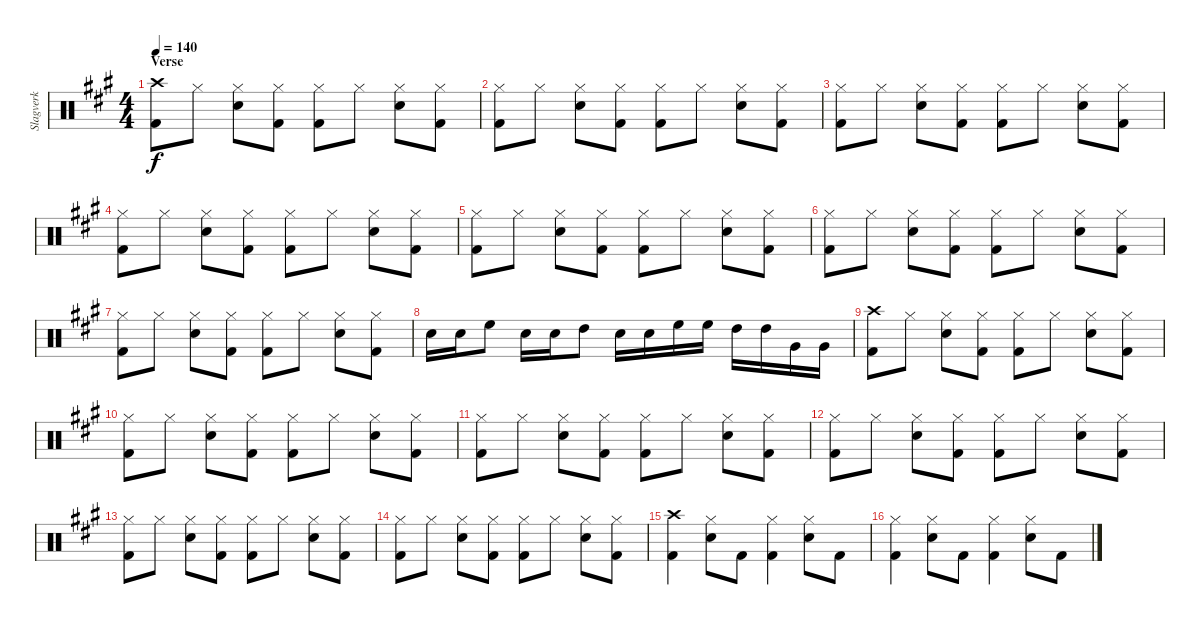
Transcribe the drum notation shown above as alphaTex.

\track ("Slagverk" "Slagverk") {instrument percussion}
\staff {score}
\articulation defaults
\ts (4 4)
\section ("" "Verse")
\tempo 140
\clef neutral
\ks a
("Crash high (hit)" "Kick (hit) 2").8{dy f} "Hi-Hat (closed)".8 ("Hi-Hat (closed)" "Electric Snare (hit)").8 ("Hi-Hat (closed)" "Kick (hit) 2").8 ("Hi-Hat (closed)" "Kick (hit) 2").8 "Hi-Hat (closed)".8 ("Hi-Hat (closed)" "Electric Snare (hit)").8 ("Hi-Hat (closed)" "Kick (hit) 2").8 |
("Hi-Hat (closed)" "Kick (hit) 2").8 "Hi-Hat (closed)".8 ("Hi-Hat (closed)" "Electric Snare (hit)").8 ("Hi-Hat (closed)" "Kick (hit) 2").8 ("Hi-Hat (closed)" "Kick (hit) 2").8 "Hi-Hat (closed)".8 ("Hi-Hat (closed)" "Electric Snare (hit)").8 ("Hi-Hat (closed)" "Kick (hit) 2").8 |
("Hi-Hat (closed)" "Kick (hit) 2").8 "Hi-Hat (closed)".8 ("Hi-Hat (closed)" "Electric Snare (hit)").8 ("Hi-Hat (closed)" "Kick (hit) 2").8 ("Hi-Hat (closed)" "Kick (hit) 2").8 "Hi-Hat (closed)".8 ("Hi-Hat (closed)" "Electric Snare (hit)").8 ("Hi-Hat (closed)" "Kick (hit) 2").8 |
("Hi-Hat (closed)" "Kick (hit) 2").8 "Hi-Hat (closed)".8 ("Hi-Hat (closed)" "Electric Snare (hit)").8 ("Hi-Hat (closed)" "Kick (hit) 2").8 ("Hi-Hat (closed)" "Kick (hit) 2").8 "Hi-Hat (closed)".8 ("Hi-Hat (closed)" "Electric Snare (hit)").8 ("Hi-Hat (closed)" "Kick (hit) 2").8 |
("Hi-Hat (closed)" "Kick (hit) 2").8 "Hi-Hat (closed)".8 ("Hi-Hat (closed)" "Electric Snare (hit)").8 ("Hi-Hat (closed)" "Kick (hit) 2").8 ("Hi-Hat (closed)" "Kick (hit) 2").8 "Hi-Hat (closed)".8 ("Hi-Hat (closed)" "Electric Snare (hit)").8 ("Hi-Hat (closed)" "Kick (hit) 2").8 |
("Hi-Hat (closed)" "Kick (hit) 2").8 "Hi-Hat (closed)".8 ("Hi-Hat (closed)" "Electric Snare (hit)").8 ("Hi-Hat (closed)" "Kick (hit) 2").8 ("Hi-Hat (closed)" "Kick (hit) 2").8 "Hi-Hat (closed)".8 ("Hi-Hat (closed)" "Electric Snare (hit)").8 ("Hi-Hat (closed)" "Kick (hit) 2").8 |
("Hi-Hat (closed)" "Kick (hit) 2").8 "Hi-Hat (closed)".8 ("Hi-Hat (closed)" "Electric Snare (hit)").8 ("Hi-Hat (closed)" "Kick (hit) 2").8 ("Hi-Hat (closed)" "Kick (hit) 2").8 "Hi-Hat (closed)".8 ("Hi-Hat (closed)" "Electric Snare (hit)").8 ("Hi-Hat (closed)" "Kick (hit) 2").8 |
"Electric Snare (hit)".16 "Electric Snare (hit)".16 "High Floor Tom (hit)".8 "Electric Snare (hit)".16 "Electric Snare (hit)".16 "High Tom (hit)".8 "Electric Snare (hit)".16 "Electric Snare (hit)".16 "High Floor Tom (hit)".16 "High Floor Tom (hit)".16 "High Tom (hit)".16 "High Tom (hit)".16 "Very Low Tom (hit)".16 "Very Low Tom (hit)".16 |
("Crash high (hit)" "Kick (hit) 2").8 "Hi-Hat (closed)".8 ("Hi-Hat (closed)" "Electric Snare (hit)").8 ("Hi-Hat (closed)" "Kick (hit) 2").8 ("Hi-Hat (closed)" "Kick (hit) 2").8 "Hi-Hat (closed)".8 ("Hi-Hat (closed)" "Electric Snare (hit)").8 ("Hi-Hat (closed)" "Kick (hit) 2").8 |
("Hi-Hat (closed)" "Kick (hit) 2").8 "Hi-Hat (closed)".8 ("Hi-Hat (closed)" "Electric Snare (hit)").8 ("Hi-Hat (closed)" "Kick (hit) 2").8 ("Hi-Hat (closed)" "Kick (hit) 2").8 "Hi-Hat (closed)".8 ("Hi-Hat (closed)" "Electric Snare (hit)").8 ("Hi-Hat (closed)" "Kick (hit) 2").8 |
("Hi-Hat (closed)" "Kick (hit) 2").8 "Hi-Hat (closed)".8 ("Hi-Hat (closed)" "Electric Snare (hit)").8 ("Hi-Hat (closed)" "Kick (hit) 2").8 ("Hi-Hat (closed)" "Kick (hit) 2").8 "Hi-Hat (closed)".8 ("Hi-Hat (closed)" "Electric Snare (hit)").8 ("Hi-Hat (closed)" "Kick (hit) 2").8 |
("Hi-Hat (closed)" "Kick (hit) 2").8 "Hi-Hat (closed)".8 ("Hi-Hat (closed)" "Electric Snare (hit)").8 ("Hi-Hat (closed)" "Kick (hit) 2").8 ("Hi-Hat (closed)" "Kick (hit) 2").8 "Hi-Hat (closed)".8 ("Hi-Hat (closed)" "Electric Snare (hit)").8 ("Hi-Hat (closed)" "Kick (hit) 2").8 |
("Hi-Hat (closed)" "Kick (hit) 2").8 "Hi-Hat (closed)".8 ("Hi-Hat (closed)" "Electric Snare (hit)").8 ("Hi-Hat (closed)" "Kick (hit) 2").8 ("Hi-Hat (closed)" "Kick (hit) 2").8 "Hi-Hat (closed)".8 ("Hi-Hat (closed)" "Electric Snare (hit)").8 ("Hi-Hat (closed)" "Kick (hit) 2").8 |
("Hi-Hat (closed)" "Kick (hit) 2").8 "Hi-Hat (closed)".8 ("Hi-Hat (closed)" "Electric Snare (hit)").8 ("Hi-Hat (closed)" "Kick (hit) 2").8 ("Hi-Hat (closed)" "Kick (hit) 2").8 "Hi-Hat (closed)".8 ("Hi-Hat (closed)" "Electric Snare (hit)").8 ("Hi-Hat (closed)" "Kick (hit) 2").8 |
("Crash high (hit)" "Kick (hit) 2").4 ("Hi-Hat (closed)" "Electric Snare (hit)").8 "Kick (hit) 2".8 ("Hi-Hat (closed)" "Kick (hit) 2").4 ("Hi-Hat (closed)" "Electric Snare (hit)").8 "Kick (hit) 2".8 |
("Hi-Hat (closed)" "Kick (hit) 2").4 ("Hi-Hat (closed)" "Electric Snare (hit)").8 "Kick (hit) 2".8 ("Hi-Hat (closed)" "Kick (hit) 2").4 ("Hi-Hat (closed)" "Electric Snare (hit)").8 "Kick (hit) 2".8
